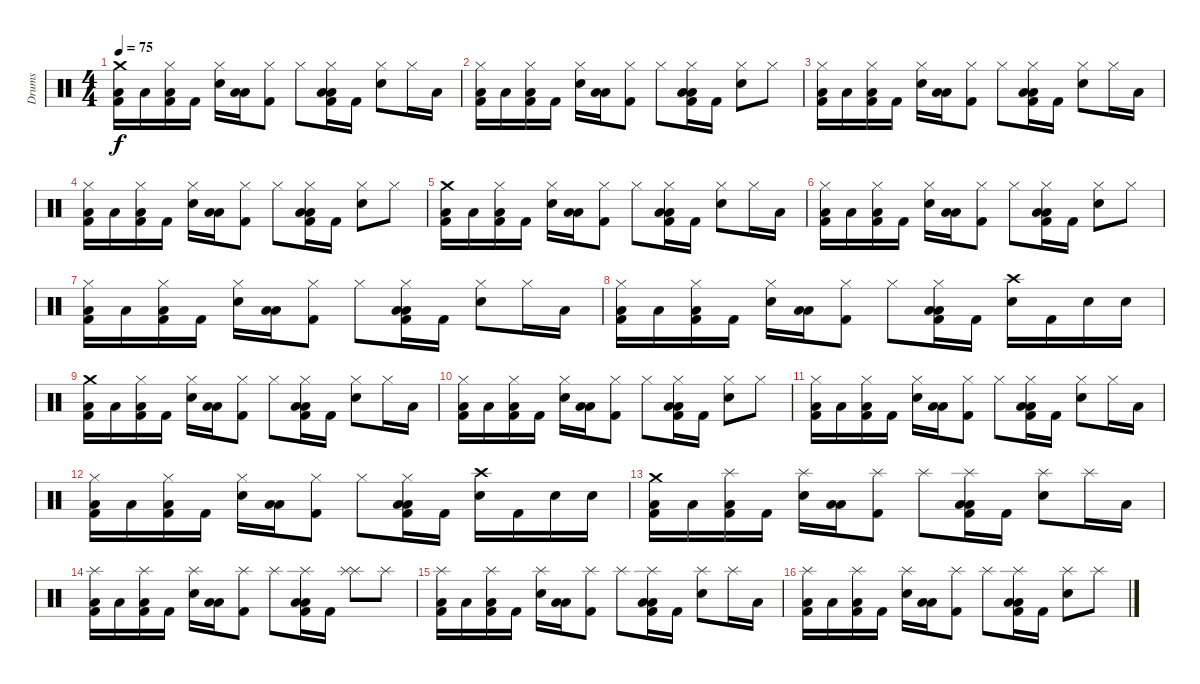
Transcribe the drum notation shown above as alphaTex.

\track ("Drums" "Drums") {instrument percussion}
\staff {score}
\articulation defaults
\ts (4 4)
\tempo 75
\clef neutral
\ks c
("Kick (hit) 2" "Low Floor Tom (hit)" "Crash medium (hit)").16{dy f} "Low Tom (hit)".16 ("Kick (hit) 2" "Low Floor Tom (hit)" "Hi-Hat (closed)").16 "Kick (hit) 2".16 ("Snare (hit) 2" "Hi-Hat (closed)").16 ("Low Tom (hit)" "Low Floor Tom (hit)").16 ("Kick (hit) 2" "Hi-Hat (closed)").8 "Hi-Hat (closed)".8 ("Kick (hit) 2" "Low Floor Tom (hit)" "Low Tom (hit)" "Hi-Hat (closed)").16 "Kick (hit) 2".16 ("Snare (hit) 2" "Hi-Hat (closed)").8 "Hi-Hat (closed)".16 "Low Tom (hit)".16 |
("Kick (hit) 2" "Low Floor Tom (hit)" "Hi-Hat (closed)").16 "Low Tom (hit)".16 ("Kick (hit) 2" "Low Floor Tom (hit)" "Hi-Hat (closed)").16 "Kick (hit) 2".16 ("Snare (hit) 2" "Hi-Hat (closed)").16 ("Low Tom (hit)" "Low Floor Tom (hit)").16 ("Kick (hit) 2" "Hi-Hat (closed)").8 "Hi-Hat (closed)".8 ("Kick (hit) 2" "Low Floor Tom (hit)" "Low Tom (hit)" "Hi-Hat (closed)").16 "Kick (hit) 2".16 ("Snare (hit) 2" "Hi-Hat (closed)").8 "Hi-Hat (closed)".8 |
("Kick (hit) 2" "Low Floor Tom (hit)" "Hi-Hat (closed)").16 "Low Tom (hit)".16 ("Kick (hit) 2" "Low Floor Tom (hit)" "Hi-Hat (closed)").16 "Kick (hit) 2".16 ("Snare (hit) 2" "Hi-Hat (closed)").16 ("Low Tom (hit)" "Low Floor Tom (hit)").16 ("Kick (hit) 2" "Hi-Hat (closed)").8 "Hi-Hat (closed)".8 ("Kick (hit) 2" "Low Floor Tom (hit)" "Low Tom (hit)" "Hi-Hat (closed)").16 "Kick (hit) 2".16 ("Snare (hit) 2" "Hi-Hat (closed)").8 "Hi-Hat (closed)".16 "Low Tom (hit)".16 |
("Kick (hit) 2" "Low Floor Tom (hit)" "Hi-Hat (closed)").16 "Low Tom (hit)".16 ("Kick (hit) 2" "Low Floor Tom (hit)" "Hi-Hat (closed)").16 "Kick (hit) 2".16 ("Snare (hit) 2" "Hi-Hat (closed)").16 ("Low Tom (hit)" "Low Floor Tom (hit)").16 ("Kick (hit) 2" "Hi-Hat (closed)").8 "Hi-Hat (closed)".8 ("Kick (hit) 2" "Low Floor Tom (hit)" "Low Tom (hit)" "Hi-Hat (closed)").16 "Kick (hit) 2".16 ("Snare (hit) 2" "Hi-Hat (closed)").8 "Hi-Hat (closed)".8 |
("Kick (hit) 2" "Low Floor Tom (hit)" "Crash medium (hit)").16 "Low Tom (hit)".16 ("Kick (hit) 2" "Low Floor Tom (hit)" "Hi-Hat (closed)").16 "Kick (hit) 2".16 ("Snare (hit) 2" "Hi-Hat (closed)").16 ("Low Tom (hit)" "Low Floor Tom (hit)").16 ("Kick (hit) 2" "Hi-Hat (closed)").8 "Hi-Hat (closed)".8 ("Kick (hit) 2" "Low Floor Tom (hit)" "Low Tom (hit)" "Hi-Hat (closed)").16 "Kick (hit) 2".16 ("Snare (hit) 2" "Hi-Hat (closed)").8 "Hi-Hat (closed)".16 "Low Tom (hit)".16 |
("Kick (hit) 2" "Low Floor Tom (hit)" "Hi-Hat (closed)").16 "Low Tom (hit)".16 ("Kick (hit) 2" "Low Floor Tom (hit)" "Hi-Hat (closed)").16 "Kick (hit) 2".16 ("Snare (hit) 2" "Hi-Hat (closed)").16 ("Low Tom (hit)" "Low Floor Tom (hit)").16 ("Kick (hit) 2" "Hi-Hat (closed)").8 "Hi-Hat (closed)".8 ("Kick (hit) 2" "Low Floor Tom (hit)" "Low Tom (hit)" "Hi-Hat (closed)").16 "Kick (hit) 2".16 ("Snare (hit) 2" "Hi-Hat (closed)").8 "Hi-Hat (closed)".8 |
("Kick (hit) 2" "Low Floor Tom (hit)" "Hi-Hat (closed)").16 "Low Tom (hit)".16 ("Kick (hit) 2" "Low Floor Tom (hit)" "Hi-Hat (closed)").16 "Kick (hit) 2".16 ("Snare (hit) 2" "Hi-Hat (closed)").16 ("Low Tom (hit)" "Low Floor Tom (hit)").16 ("Kick (hit) 2" "Hi-Hat (closed)").8 "Hi-Hat (closed)".8 ("Kick (hit) 2" "Low Floor Tom (hit)" "Low Tom (hit)" "Hi-Hat (closed)").16 "Kick (hit) 2".16 ("Snare (hit) 2" "Hi-Hat (closed)").8 "Hi-Hat (closed)".16 "Low Tom (hit)".16 |
("Kick (hit) 2" "Low Floor Tom (hit)" "Hi-Hat (closed)").16 "Low Tom (hit)".16 ("Kick (hit) 2" "Low Floor Tom (hit)" "Hi-Hat (closed)").16 "Kick (hit) 2".16 ("Snare (hit) 2" "Hi-Hat (closed)").16 ("Low Tom (hit)" "Low Floor Tom (hit)").16 ("Kick (hit) 2" "Hi-Hat (closed)").8 "Hi-Hat (closed)".8 ("Kick (hit) 2" "Low Floor Tom (hit)" "Low Tom (hit)" "Hi-Hat (closed)").16 "Kick (hit) 2".16 ("Snare (hit) 2" "Crash high (hit)").16 "Kick (hit) 2".16 "Snare (hit) 2".16 "Snare (hit) 2".16 |
("Kick (hit) 2" "Low Floor Tom (hit)" "Crash medium (hit)").16 "Low Tom (hit)".16 ("Kick (hit) 2" "Low Floor Tom (hit)" "Hi-Hat (closed)").16 "Kick (hit) 2".16 ("Snare (hit) 2" "Hi-Hat (closed)").16 ("Low Tom (hit)" "Low Floor Tom (hit)").16 ("Kick (hit) 2" "Hi-Hat (closed)").8 "Hi-Hat (closed)".8 ("Kick (hit) 2" "Low Floor Tom (hit)" "Low Tom (hit)" "Hi-Hat (closed)").16 "Kick (hit) 2".16 ("Snare (hit) 2" "Hi-Hat (closed)").8 "Hi-Hat (closed)".16 "Low Tom (hit)".16 |
("Kick (hit) 2" "Low Floor Tom (hit)" "Hi-Hat (closed)").16 "Low Tom (hit)".16 ("Kick (hit) 2" "Low Floor Tom (hit)" "Hi-Hat (closed)").16 "Kick (hit) 2".16 ("Snare (hit) 2" "Hi-Hat (closed)").16 ("Low Tom (hit)" "Low Floor Tom (hit)").16 ("Kick (hit) 2" "Hi-Hat (closed)").8 "Hi-Hat (closed)".8 ("Kick (hit) 2" "Low Floor Tom (hit)" "Low Tom (hit)" "Hi-Hat (closed)").16 "Kick (hit) 2".16 ("Snare (hit) 2" "Hi-Hat (closed)").8 "Hi-Hat (closed)".8 |
("Kick (hit) 2" "Low Floor Tom (hit)" "Hi-Hat (closed)").16 "Low Tom (hit)".16 ("Kick (hit) 2" "Low Floor Tom (hit)" "Hi-Hat (closed)").16 "Kick (hit) 2".16 ("Snare (hit) 2" "Hi-Hat (closed)").16 ("Low Tom (hit)" "Low Floor Tom (hit)").16 ("Kick (hit) 2" "Hi-Hat (closed)").8 "Hi-Hat (closed)".8 ("Kick (hit) 2" "Low Floor Tom (hit)" "Low Tom (hit)" "Hi-Hat (closed)").16 "Kick (hit) 2".16 ("Snare (hit) 2" "Hi-Hat (closed)").8 "Hi-Hat (closed)".16 "Low Tom (hit)".16 |
("Kick (hit) 2" "Low Floor Tom (hit)" "Hi-Hat (closed)").16 "Low Tom (hit)".16 ("Kick (hit) 2" "Low Floor Tom (hit)" "Hi-Hat (closed)").16 "Kick (hit) 2".16 ("Snare (hit) 2" "Hi-Hat (closed)").16 ("Low Tom (hit)" "Low Floor Tom (hit)").16 ("Kick (hit) 2" "Hi-Hat (closed)").8 "Hi-Hat (closed)".8 ("Kick (hit) 2" "Low Floor Tom (hit)" "Low Tom (hit)" "Hi-Hat (closed)").16 "Kick (hit) 2".16 ("Snare (hit) 2" "Crash high (hit)").16 "Kick (hit) 2".16 "Snare (hit) 2".16 "Snare (hit) 2".16 |
("Kick (hit) 2" "Low Floor Tom (hit)" "Crash medium (hit)").16 "Low Tom (hit)".16 ("Kick (hit) 2" "Low Floor Tom (hit)" "Splash (hit)").16 "Kick (hit) 2".16 ("Snare (hit) 2" "Splash (hit)").16 ("Low Tom (hit)" "Low Floor Tom (hit)").16 ("Kick (hit) 2" "Splash (hit)").8 "Splash (hit)".8 ("Kick (hit) 2" "Low Floor Tom (hit)" "Low Tom (hit)" "Splash (hit)").16 "Kick (hit) 2".16 ("Snare (hit) 2" "Splash (hit)").8 "Splash (hit)".16 "Low Tom (hit)".16 |
("Kick (hit) 2" "Low Floor Tom (hit)" "Splash (hit)").16 "Low Tom (hit)".16 ("Kick (hit) 2" "Low Floor Tom (hit)" "Splash (hit)").16 "Kick (hit) 2".16 ("Snare (hit) 2" "Splash (hit)").16 ("Low Tom (hit)" "Low Floor Tom (hit)").16 ("Kick (hit) 2" "Splash (hit)").8 "Splash (hit)".8 ("Kick (hit) 2" "Low Floor Tom (hit)" "Low Tom (hit)" "Splash (hit)").16 "Kick (hit) 2".16 ("Splash (hit)" "Splash (hit)").8 "Splash (hit)".8 |
("Kick (hit) 2" "Low Floor Tom (hit)" "Splash (hit)").16 "Low Tom (hit)".16 ("Kick (hit) 2" "Low Floor Tom (hit)" "Splash (hit)").16 "Kick (hit) 2".16 ("Snare (hit) 2" "Splash (hit)").16 ("Low Tom (hit)" "Low Floor Tom (hit)").16 ("Kick (hit) 2" "Splash (hit)").8 "Splash (hit)".8 ("Kick (hit) 2" "Low Floor Tom (hit)" "Low Tom (hit)" "Splash (hit)").16 "Kick (hit) 2".16 ("Snare (hit) 2" "Splash (hit)").8 "Splash (hit)".16 "Low Tom (hit)".16 |
("Kick (hit) 2" "Low Floor Tom (hit)" "Splash (hit)").16 "Low Tom (hit)".16 ("Kick (hit) 2" "Low Floor Tom (hit)" "Splash (hit)").16 "Kick (hit) 2".16 ("Snare (hit) 2" "Splash (hit)").16 ("Low Tom (hit)" "Low Floor Tom (hit)").16 ("Kick (hit) 2" "Splash (hit)").8 "Splash (hit)".8 ("Kick (hit) 2" "Low Floor Tom (hit)" "Low Tom (hit)" "Splash (hit)").16 "Kick (hit) 2".16 ("Snare (hit) 2" "Splash (hit)").8 "Splash (hit)".8
